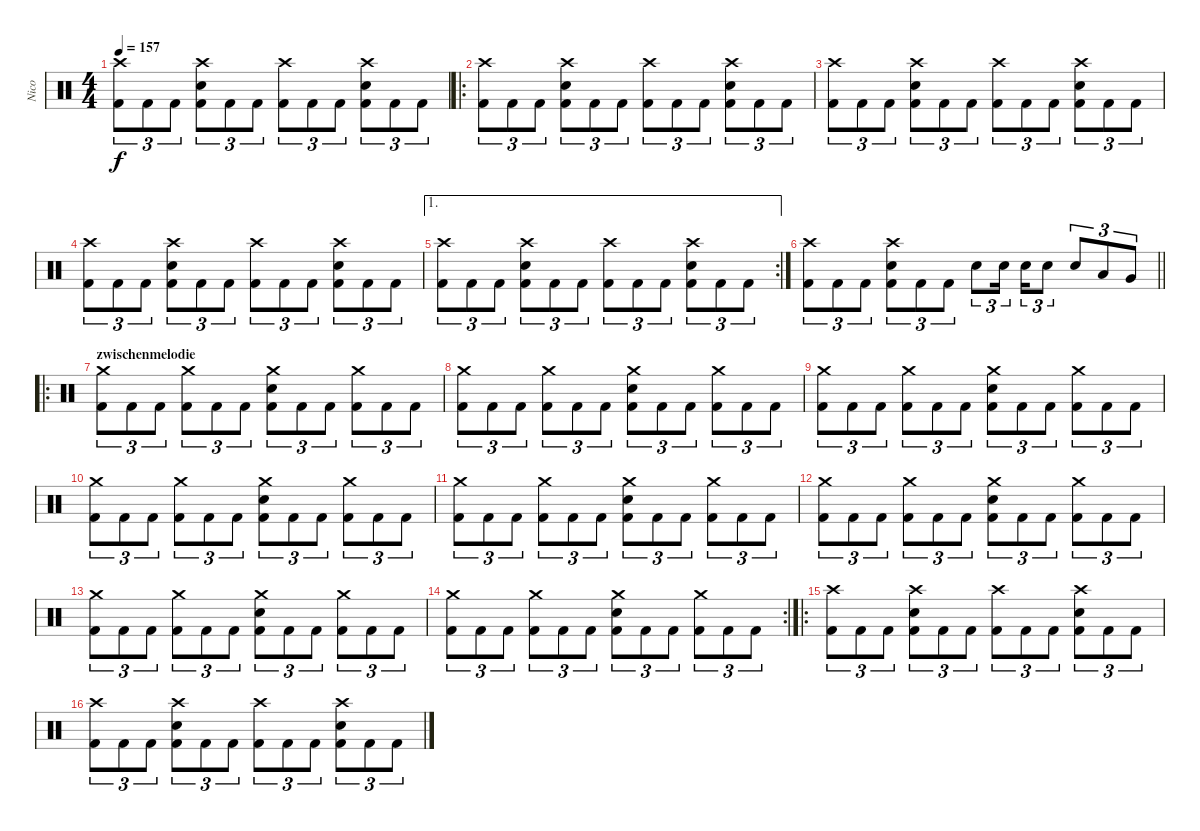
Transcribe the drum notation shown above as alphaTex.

\track ("Nico" "Nico") {instrument percussion}
\staff {score}
\articulation defaults
\ts (4 4)
\tempo 157
\clef neutral
\ks c
("Crash high (hit)" "Kick (hit) 2").8{tu (3 2) dy f} "Kick (hit) 2".8{tu (3 2)} "Kick (hit) 2".8{tu (3 2)} ("Crash high (hit)" "Electric Snare (hit)" "Kick (hit) 2").8{tu (3 2)} "Kick (hit) 2".8{tu (3 2)} "Kick (hit) 2".8{tu (3 2)} ("Crash high (hit)" "Kick (hit) 2").8{tu (3 2)} "Kick (hit) 2".8{tu (3 2)} "Kick (hit) 2".8{tu (3 2)} ("Crash high (hit)" "Electric Snare (hit)" "Kick (hit) 2").8{tu (3 2)} "Kick (hit) 2".8{tu (3 2)} "Kick (hit) 2".8{tu (3 2)} |
\ro
("Crash high (hit)" "Kick (hit) 2").8{tu (3 2)} "Kick (hit) 2".8{tu (3 2)} "Kick (hit) 2".8{tu (3 2)} ("Crash high (hit)" "Electric Snare (hit)" "Kick (hit) 2").8{tu (3 2)} "Kick (hit) 2".8{tu (3 2)} "Kick (hit) 2".8{tu (3 2)} ("Crash high (hit)" "Kick (hit) 2").8{tu (3 2)} "Kick (hit) 2".8{tu (3 2)} "Kick (hit) 2".8{tu (3 2)} ("Crash high (hit)" "Electric Snare (hit)" "Kick (hit) 2").8{tu (3 2)} "Kick (hit) 2".8{tu (3 2)} "Kick (hit) 2".8{tu (3 2)} |
("Crash high (hit)" "Kick (hit) 2").8{tu (3 2)} "Kick (hit) 2".8{tu (3 2)} "Kick (hit) 2".8{tu (3 2)} ("Crash high (hit)" "Electric Snare (hit)" "Kick (hit) 2").8{tu (3 2)} "Kick (hit) 2".8{tu (3 2)} "Kick (hit) 2".8{tu (3 2)} ("Crash high (hit)" "Kick (hit) 2").8{tu (3 2)} "Kick (hit) 2".8{tu (3 2)} "Kick (hit) 2".8{tu (3 2)} ("Crash high (hit)" "Electric Snare (hit)" "Kick (hit) 2").8{tu (3 2)} "Kick (hit) 2".8{tu (3 2)} "Kick (hit) 2".8{tu (3 2)} |
("Crash high (hit)" "Kick (hit) 2").8{tu (3 2)} "Kick (hit) 2".8{tu (3 2)} "Kick (hit) 2".8{tu (3 2)} ("Crash high (hit)" "Electric Snare (hit)" "Kick (hit) 2").8{tu (3 2)} "Kick (hit) 2".8{tu (3 2)} "Kick (hit) 2".8{tu (3 2)} ("Crash high (hit)" "Kick (hit) 2").8{tu (3 2)} "Kick (hit) 2".8{tu (3 2)} "Kick (hit) 2".8{tu (3 2)} ("Crash high (hit)" "Electric Snare (hit)" "Kick (hit) 2").8{tu (3 2)} "Kick (hit) 2".8{tu (3 2)} "Kick (hit) 2".8{tu (3 2)} |
\ae 1
\rc 2
("Crash high (hit)" "Kick (hit) 2").8{tu (3 2)} "Kick (hit) 2".8{tu (3 2)} "Kick (hit) 2".8{tu (3 2)} ("Crash high (hit)" "Electric Snare (hit)" "Kick (hit) 2").8{tu (3 2)} "Kick (hit) 2".8{tu (3 2)} "Kick (hit) 2".8{tu (3 2)} ("Crash high (hit)" "Kick (hit) 2").8{tu (3 2)} "Kick (hit) 2".8{tu (3 2)} "Kick (hit) 2".8{tu (3 2)} ("Crash high (hit)" "Electric Snare (hit)" "Kick (hit) 2").8{tu (3 2)} "Kick (hit) 2".8{tu (3 2)} "Kick (hit) 2".8{tu (3 2)} |
\barLineRight lightlight
("Crash high (hit)" "Kick (hit) 2").8{tu (3 2)} "Kick (hit) 2".8{tu (3 2)} "Kick (hit) 2".8{tu (3 2)} ("Crash high (hit)" "Electric Snare (hit)" "Kick (hit) 2").8{tu (3 2)} "Kick (hit) 2".8{tu (3 2)} "Kick (hit) 2".8{tu (3 2)} "Electric Snare (hit)".8{tu (3 2)} "Electric Snare (hit)".16{tu (3 2) beam splitsecondary} "Electric Snare (hit)".16{tu (3 2)} "Electric Snare (hit)".8{tu (3 2)} "Electric Snare (hit)".8{tu (3 2)} "Low Tom (hit)".8{tu (3 2)} "Very Low Tom (hit)".8{tu (3 2)} |
\ro
\section ("" "zwischenmelodie")
("Crash medium (hit)" "Kick (hit) 2").8{tu (3 2)} "Kick (hit) 2".8{tu (3 2)} "Kick (hit) 2".8{tu (3 2)} ("Crash medium (hit)" "Kick (hit) 2").8{tu (3 2)} "Kick (hit) 2".8{tu (3 2)} "Kick (hit) 2".8{tu (3 2)} ("Crash medium (hit)" "Electric Snare (hit)" "Kick (hit) 2").8{tu (3 2)} "Kick (hit) 2".8{tu (3 2)} "Kick (hit) 2".8{tu (3 2)} ("Crash medium (hit)" "Kick (hit) 2").8{tu (3 2)} "Kick (hit) 2".8{tu (3 2)} "Kick (hit) 2".8{tu (3 2)} |
("Crash medium (hit)" "Kick (hit) 2").8{tu (3 2)} "Kick (hit) 2".8{tu (3 2)} "Kick (hit) 2".8{tu (3 2)} ("Crash medium (hit)" "Kick (hit) 2").8{tu (3 2)} "Kick (hit) 2".8{tu (3 2)} "Kick (hit) 2".8{tu (3 2)} ("Crash medium (hit)" "Electric Snare (hit)" "Kick (hit) 2").8{tu (3 2)} "Kick (hit) 2".8{tu (3 2)} "Kick (hit) 2".8{tu (3 2)} ("Crash medium (hit)" "Kick (hit) 2").8{tu (3 2)} "Kick (hit) 2".8{tu (3 2)} "Kick (hit) 2".8{tu (3 2)} |
("Crash medium (hit)" "Kick (hit) 2").8{tu (3 2)} "Kick (hit) 2".8{tu (3 2)} "Kick (hit) 2".8{tu (3 2)} ("Crash medium (hit)" "Kick (hit) 2").8{tu (3 2)} "Kick (hit) 2".8{tu (3 2)} "Kick (hit) 2".8{tu (3 2)} ("Crash medium (hit)" "Electric Snare (hit)" "Kick (hit) 2").8{tu (3 2)} "Kick (hit) 2".8{tu (3 2)} "Kick (hit) 2".8{tu (3 2)} ("Crash medium (hit)" "Kick (hit) 2").8{tu (3 2)} "Kick (hit) 2".8{tu (3 2)} "Kick (hit) 2".8{tu (3 2)} |
("Crash medium (hit)" "Kick (hit) 2").8{tu (3 2)} "Kick (hit) 2".8{tu (3 2)} "Kick (hit) 2".8{tu (3 2)} ("Crash medium (hit)" "Kick (hit) 2").8{tu (3 2)} "Kick (hit) 2".8{tu (3 2)} "Kick (hit) 2".8{tu (3 2)} ("Crash medium (hit)" "Electric Snare (hit)" "Kick (hit) 2").8{tu (3 2)} "Kick (hit) 2".8{tu (3 2)} "Kick (hit) 2".8{tu (3 2)} ("Crash medium (hit)" "Kick (hit) 2").8{tu (3 2)} "Kick (hit) 2".8{tu (3 2)} "Kick (hit) 2".8{tu (3 2)} |
("Crash medium (hit)" "Kick (hit) 2").8{tu (3 2)} "Kick (hit) 2".8{tu (3 2)} "Kick (hit) 2".8{tu (3 2)} ("Crash medium (hit)" "Kick (hit) 2").8{tu (3 2)} "Kick (hit) 2".8{tu (3 2)} "Kick (hit) 2".8{tu (3 2)} ("Crash medium (hit)" "Electric Snare (hit)" "Kick (hit) 2").8{tu (3 2)} "Kick (hit) 2".8{tu (3 2)} "Kick (hit) 2".8{tu (3 2)} ("Crash medium (hit)" "Kick (hit) 2").8{tu (3 2)} "Kick (hit) 2".8{tu (3 2)} "Kick (hit) 2".8{tu (3 2)} |
("Crash medium (hit)" "Kick (hit) 2").8{tu (3 2)} "Kick (hit) 2".8{tu (3 2)} "Kick (hit) 2".8{tu (3 2)} ("Crash medium (hit)" "Kick (hit) 2").8{tu (3 2)} "Kick (hit) 2".8{tu (3 2)} "Kick (hit) 2".8{tu (3 2)} ("Crash medium (hit)" "Electric Snare (hit)" "Kick (hit) 2").8{tu (3 2)} "Kick (hit) 2".8{tu (3 2)} "Kick (hit) 2".8{tu (3 2)} ("Crash medium (hit)" "Kick (hit) 2").8{tu (3 2)} "Kick (hit) 2".8{tu (3 2)} "Kick (hit) 2".8{tu (3 2)} |
("Crash medium (hit)" "Kick (hit) 2").8{tu (3 2)} "Kick (hit) 2".8{tu (3 2)} "Kick (hit) 2".8{tu (3 2)} ("Crash medium (hit)" "Kick (hit) 2").8{tu (3 2)} "Kick (hit) 2".8{tu (3 2)} "Kick (hit) 2".8{tu (3 2)} ("Crash medium (hit)" "Electric Snare (hit)" "Kick (hit) 2").8{tu (3 2)} "Kick (hit) 2".8{tu (3 2)} "Kick (hit) 2".8{tu (3 2)} ("Crash medium (hit)" "Kick (hit) 2").8{tu (3 2)} "Kick (hit) 2".8{tu (3 2)} "Kick (hit) 2".8{tu (3 2)} |
\rc 2
("Crash medium (hit)" "Kick (hit) 2").8{tu (3 2)} "Kick (hit) 2".8{tu (3 2)} "Kick (hit) 2".8{tu (3 2)} ("Crash medium (hit)" "Kick (hit) 2").8{tu (3 2)} "Kick (hit) 2".8{tu (3 2)} "Kick (hit) 2".8{tu (3 2)} ("Crash medium (hit)" "Electric Snare (hit)" "Kick (hit) 2").8{tu (3 2)} "Kick (hit) 2".8{tu (3 2)} "Kick (hit) 2".8{tu (3 2)} ("Crash medium (hit)" "Kick (hit) 2").8{tu (3 2)} "Kick (hit) 2".8{tu (3 2)} "Kick (hit) 2".8{tu (3 2)} |
\ro
("Crash high (hit)" "Kick (hit) 2").8{tu (3 2)} "Kick (hit) 2".8{tu (3 2)} "Kick (hit) 2".8{tu (3 2)} ("Crash high (hit)" "Electric Snare (hit)" "Kick (hit) 2").8{tu (3 2)} "Kick (hit) 2".8{tu (3 2)} "Kick (hit) 2".8{tu (3 2)} ("Crash high (hit)" "Kick (hit) 2").8{tu (3 2)} "Kick (hit) 2".8{tu (3 2)} "Kick (hit) 2".8{tu (3 2)} ("Crash high (hit)" "Electric Snare (hit)" "Kick (hit) 2").8{tu (3 2)} "Kick (hit) 2".8{tu (3 2)} "Kick (hit) 2".8{tu (3 2)} |
("Crash high (hit)" "Kick (hit) 2").8{tu (3 2)} "Kick (hit) 2".8{tu (3 2)} "Kick (hit) 2".8{tu (3 2)} ("Crash high (hit)" "Electric Snare (hit)" "Kick (hit) 2").8{tu (3 2)} "Kick (hit) 2".8{tu (3 2)} "Kick (hit) 2".8{tu (3 2)} ("Crash high (hit)" "Kick (hit) 2").8{tu (3 2)} "Kick (hit) 2".8{tu (3 2)} "Kick (hit) 2".8{tu (3 2)} ("Crash high (hit)" "Electric Snare (hit)" "Kick (hit) 2").8{tu (3 2)} "Kick (hit) 2".8{tu (3 2)} "Kick (hit) 2".8{tu (3 2)}
